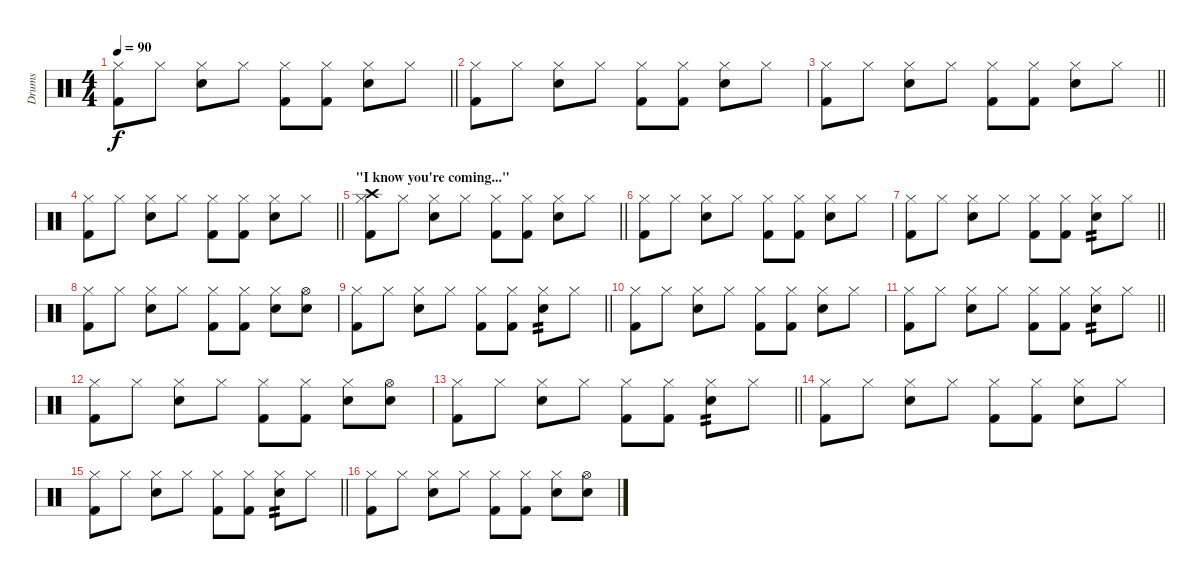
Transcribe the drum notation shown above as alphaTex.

\track ("Drums" "Drums") {instrument percussion}
\staff {score}
\articulation defaults
\ts (4 4)
\tempo 90
\clef neutral
\barLineRight lightlight
\ks c
("Hi-Hat (closed)" "Kick (hit) 2").8{dy f} "Hi-Hat (closed)".8 ("Hi-Hat (closed)" "Electric Snare (hit)").8 "Hi-Hat (closed)".8 ("Hi-Hat (closed)" "Kick (hit) 2").8 ("Hi-Hat (closed)" "Kick (hit) 2").8 ("Hi-Hat (closed)" "Electric Snare (hit)").8 "Hi-Hat (closed)".8 |
("Hi-Hat (closed)" "Kick (hit) 2").8 "Hi-Hat (closed)".8 ("Hi-Hat (closed)" "Electric Snare (hit)").8 "Hi-Hat (closed)".8 ("Hi-Hat (closed)" "Kick (hit) 2").8 ("Hi-Hat (closed)" "Kick (hit) 2").8 ("Hi-Hat (closed)" "Electric Snare (hit)").8 "Hi-Hat (closed)".8 |
\barLineRight lightlight
("Hi-Hat (closed)" "Kick (hit) 2").8 "Hi-Hat (closed)".8 ("Hi-Hat (closed)" "Electric Snare (hit)").8 "Hi-Hat (closed)".8 ("Hi-Hat (closed)" "Kick (hit) 2").8 ("Hi-Hat (closed)" "Kick (hit) 2").8 ("Hi-Hat (closed)" "Electric Snare (hit)").8 "Hi-Hat (closed)".8 |
\barLineRight lightlight
("Hi-Hat (closed)" "Kick (hit) 2").8 "Hi-Hat (closed)".8 ("Hi-Hat (closed)" "Electric Snare (hit)").8 "Hi-Hat (closed)".8 ("Hi-Hat (closed)" "Kick (hit) 2").8 ("Hi-Hat (closed)" "Kick (hit) 2").8 ("Hi-Hat (closed)" "Electric Snare (hit)").8 "Hi-Hat (closed)".8 |
\section ("" "\"I know you're coming...\"")
\barLineRight lightlight
("Crash high (hit)" "Hi-Hat (closed)" "Kick (hit) 2").8 "Hi-Hat (closed)".8 ("Hi-Hat (closed)" "Electric Snare (hit)").8 "Hi-Hat (closed)".8 ("Hi-Hat (closed)" "Kick (hit) 2").8 ("Hi-Hat (closed)" "Kick (hit) 2").8 ("Hi-Hat (closed)" "Electric Snare (hit)").8 "Hi-Hat (closed)".8 |
("Hi-Hat (closed)" "Kick (hit) 2").8 "Hi-Hat (closed)".8 ("Hi-Hat (closed)" "Electric Snare (hit)").8 "Hi-Hat (closed)".8 ("Hi-Hat (closed)" "Kick (hit) 2").8 ("Hi-Hat (closed)" "Kick (hit) 2").8 ("Hi-Hat (closed)" "Electric Snare (hit)").8 "Hi-Hat (closed)".8 |
\barLineRight lightlight
("Hi-Hat (closed)" "Kick (hit) 2").8 "Hi-Hat (closed)".8 ("Hi-Hat (closed)" "Electric Snare (hit)").8 "Hi-Hat (closed)".8 ("Hi-Hat (closed)" "Kick (hit) 2").8 ("Hi-Hat (closed)" "Kick (hit) 2").8 ("Hi-Hat (closed)" "Electric Snare (hit)").8{tp 2} "Hi-Hat (closed)".8 |
("Hi-Hat (closed)" "Kick (hit) 2").8 "Hi-Hat (closed)".8 ("Hi-Hat (closed)" "Electric Snare (hit)").8 "Hi-Hat (closed)".8 ("Hi-Hat (closed)" "Kick (hit) 2").8 ("Hi-Hat (closed)" "Kick (hit) 2").8 ("Hi-Hat (closed)" "Electric Snare (hit)").8 ("Hi-Hat (open)" "Electric Snare (hit)").8 |
\barLineRight lightlight
("Hi-Hat (closed)" "Kick (hit) 2").8 "Hi-Hat (closed)".8 ("Hi-Hat (closed)" "Electric Snare (hit)").8 "Hi-Hat (closed)".8 ("Hi-Hat (closed)" "Kick (hit) 2").8 ("Hi-Hat (closed)" "Kick (hit) 2").8 ("Hi-Hat (closed)" "Electric Snare (hit)").8{tp 2} "Hi-Hat (closed)".8 |
("Hi-Hat (closed)" "Kick (hit) 2").8 "Hi-Hat (closed)".8 ("Hi-Hat (closed)" "Electric Snare (hit)").8 "Hi-Hat (closed)".8 ("Hi-Hat (closed)" "Kick (hit) 2").8 ("Hi-Hat (closed)" "Kick (hit) 2").8 ("Hi-Hat (closed)" "Electric Snare (hit)").8 "Hi-Hat (closed)".8 |
\barLineRight lightlight
("Hi-Hat (closed)" "Kick (hit) 2").8 "Hi-Hat (closed)".8 ("Hi-Hat (closed)" "Electric Snare (hit)").8 "Hi-Hat (closed)".8 ("Hi-Hat (closed)" "Kick (hit) 2").8 ("Hi-Hat (closed)" "Kick (hit) 2").8 ("Hi-Hat (closed)" "Electric Snare (hit)").8{tp 2} "Hi-Hat (closed)".8 |
("Hi-Hat (closed)" "Kick (hit) 2").8 "Hi-Hat (closed)".8 ("Hi-Hat (closed)" "Electric Snare (hit)").8 "Hi-Hat (closed)".8 ("Hi-Hat (closed)" "Kick (hit) 2").8 ("Hi-Hat (closed)" "Kick (hit) 2").8 ("Hi-Hat (closed)" "Electric Snare (hit)").8 ("Hi-Hat (open)" "Electric Snare (hit)").8 |
\barLineRight lightlight
("Hi-Hat (closed)" "Kick (hit) 2").8 "Hi-Hat (closed)".8 ("Hi-Hat (closed)" "Electric Snare (hit)").8 "Hi-Hat (closed)".8 ("Hi-Hat (closed)" "Kick (hit) 2").8 ("Hi-Hat (closed)" "Kick (hit) 2").8 ("Hi-Hat (closed)" "Electric Snare (hit)").8{tp 2} "Hi-Hat (closed)".8 |
("Hi-Hat (closed)" "Kick (hit) 2").8 "Hi-Hat (closed)".8 ("Hi-Hat (closed)" "Electric Snare (hit)").8 "Hi-Hat (closed)".8 ("Hi-Hat (closed)" "Kick (hit) 2").8 ("Hi-Hat (closed)" "Kick (hit) 2").8 ("Hi-Hat (closed)" "Electric Snare (hit)").8 "Hi-Hat (closed)".8 |
\barLineRight lightlight
("Hi-Hat (closed)" "Kick (hit) 2").8 "Hi-Hat (closed)".8 ("Hi-Hat (closed)" "Electric Snare (hit)").8 "Hi-Hat (closed)".8 ("Hi-Hat (closed)" "Kick (hit) 2").8 ("Hi-Hat (closed)" "Kick (hit) 2").8 ("Hi-Hat (closed)" "Electric Snare (hit)").8{tp 2} "Hi-Hat (closed)".8 |
("Hi-Hat (closed)" "Kick (hit) 2").8 "Hi-Hat (closed)".8 ("Hi-Hat (closed)" "Electric Snare (hit)").8 "Hi-Hat (closed)".8 ("Hi-Hat (closed)" "Kick (hit) 2").8 ("Hi-Hat (closed)" "Kick (hit) 2").8 ("Hi-Hat (closed)" "Electric Snare (hit)").8 ("Hi-Hat (open)" "Electric Snare (hit)").8
